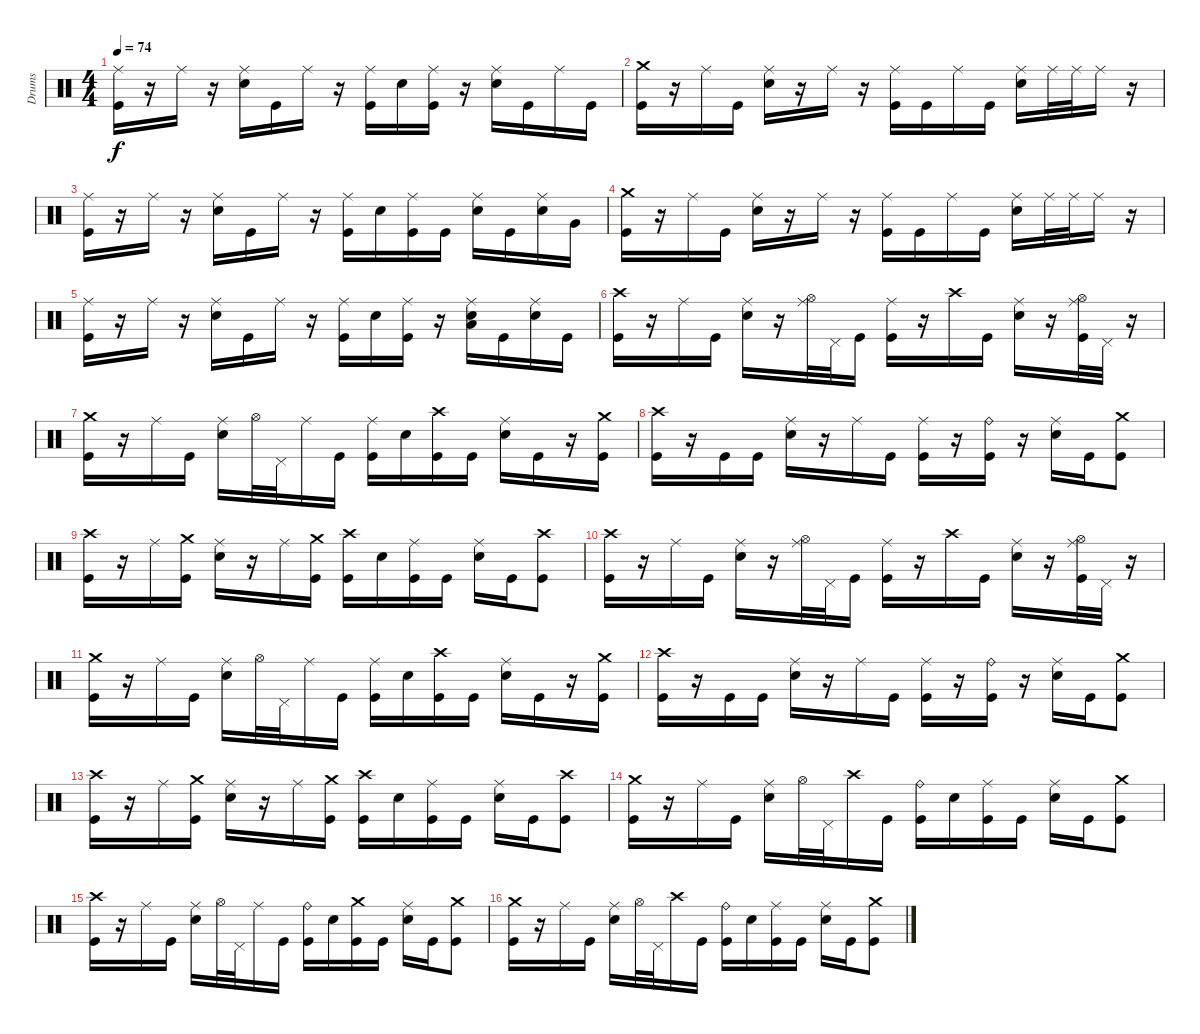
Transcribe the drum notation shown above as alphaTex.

\track ("Drums" "Drums") {instrument percussion}
\staff {score}
\articulation defaults
\ts (4 4)
\tempo 74
\clef neutral
\ks c
("Ride (middle)" "Kick (hit)").16{dy f} r.16 "Ride (middle)".16 r.16 ("Ride (middle)" "Electric Snare (hit)").16 "Kick (hit)".16 "Ride (middle)".16 r.16 ("Ride (middle)" "Kick (hit)").16 "Electric Snare (hit)".16 ("Ride (middle)" "Kick (hit)").16 r.16 ("Ride (middle)" "Electric Snare (hit)").16 "Kick (hit)".16 "Ride (middle)".16 "Kick (hit)".16 |
("Crash medium (hit)" "Kick (hit)").16 r.16 "Ride (middle)".16 "Kick (hit)".16 ("Ride (middle)" "Electric Snare (hit)").16 r.16 "Ride (middle)".16 r.16 ("Ride (middle)" "Kick (hit)").16 "Kick (hit)".16 "Ride (middle)".16 "Kick (hit)".16 ("Ride (middle)" "Electric Snare (hit)").16 "Ride (middle)".32 "Ride (middle)".32 "Ride (middle)".16 r.16 |
("Ride (middle)" "Kick (hit)").16 r.16 "Ride (middle)".16 r.16 ("Ride (middle)" "Electric Snare (hit)").16 "Kick (hit)".16 "Ride (middle)".16 r.16 ("Ride (middle)" "Kick (hit)").16 "Electric Snare (hit)".16 ("Ride (middle)" "Kick (hit)").16 "Kick (hit)".16 ("Ride (middle)" "Electric Snare (hit)").16 "Kick (hit)".16 ("Ride (middle)" "Electric Snare (hit)").16 "Very Low Tom (hit)".16 |
("Crash medium (hit)" "Kick (hit)").16 r.16 "Ride (middle)".16 "Kick (hit)".16 ("Ride (middle)" "Electric Snare (hit)").16 r.16 "Ride (middle)".16 r.16 ("Ride (middle)" "Kick (hit)").16 "Kick (hit)".16 "Ride (middle)".16 "Kick (hit)".16 ("Ride (middle)" "Electric Snare (hit)").16 "Ride (middle)".32 "Ride (middle)".32 "Ride (middle)".16 r.16 |
("Ride (middle)" "Kick (hit)").16 r.16 "Ride (middle)".16 r.16 ("Ride (middle)" "Electric Snare (hit)").16 "Kick (hit)".16 "Ride (middle)".16 r.16 ("Ride (middle)" "Kick (hit)").16 "Electric Snare (hit)".16 ("Ride (middle)" "Kick (hit)").16 r.16 ("Ride (middle)" "Electric Snare (hit)" "Low Floor Tom (hit)").16 "Kick (hit)".16 ("Ride (middle)" "Electric Snare (hit)").16 "Kick (hit)".16 |
("Crash high (hit)" "Kick (hit)").16 r.16 "Ride (middle)".16 "Kick (hit)".16 ("Ride (middle)" "Electric Snare (hit)").16 r.16 ("Ride (middle)" "Hi-Hat (open)").32 "Pedal Hi-Hat (hit)".32 "Kick (hit)".16 ("Ride (middle)" "Kick (hit)").16 r.16 "Crash high (hit)".16 "Kick (hit)".16 ("Ride (middle)" "Electric Snare (hit)").16 r.16 ("Ride (middle)" "Kick (hit)" "Hi-Hat (open)").32 "Pedal Hi-Hat (hit)".32 r.16 |
("Crash medium (hit)" "Kick (hit)").16 r.16 "Ride (middle)".16 "Kick (hit)".16 ("Ride (middle)" "Electric Snare (hit)").16 "Hi-Hat (open)".32 "Pedal Hi-Hat (hit)".32 "Ride (middle)".16 "Kick (hit)".16 ("Ride (middle)" "Kick (hit)").16 "Electric Snare (hit)".16 ("Crash high (hit)" "Kick (hit)").16 "Kick (hit)".16 ("Ride (middle)" "Electric Snare (hit)").16 "Kick (hit)".16 r.16 ("Crash medium (hit)" "Kick (hit)").16 |
("Crash high (hit)" "Kick (hit)").16 r.16 "Kick (hit)".16 "Kick (hit)".16 ("Ride (middle)" "Electric Snare (hit)").16 r.16 "Ride (middle)".16 "Kick (hit)".16 ("Ride (middle)" "Kick (hit)").16 r.16 ("Ride (bell)" "Kick (hit)").16 r.16 ("Ride (middle)" "Electric Snare (hit)").16 "Kick (hit)".16 ("Crash medium (hit)" "Kick (hit)").8 |
("Crash high (hit)" "Kick (hit)").16 r.16 "Ride (middle)".16 ("Crash medium (hit)" "Kick (hit)").16 ("Ride (middle)" "Electric Snare (hit)").16 r.16 "Ride (middle)".16 ("Crash medium (hit)" "Kick (hit)").16 ("Crash high (hit)" "Kick (hit)").16 "Electric Snare (hit)".16 ("Ride (middle)" "Kick (hit)").16 "Kick (hit)".16 ("Ride (middle)" "Electric Snare (hit)").16 "Kick (hit)".16 ("Crash high (hit)" "Kick (hit)").8 |
("Crash high (hit)" "Kick (hit)").16 r.16 "Ride (middle)".16 "Kick (hit)".16 ("Ride (middle)" "Electric Snare (hit)").16 r.16 ("Ride (middle)" "Hi-Hat (open)").32 "Pedal Hi-Hat (hit)".32 "Kick (hit)".16 ("Ride (middle)" "Kick (hit)").16 r.16 "Crash high (hit)".16 "Kick (hit)".16 ("Ride (middle)" "Electric Snare (hit)").16 r.16 ("Ride (middle)" "Kick (hit)" "Hi-Hat (open)").32 "Pedal Hi-Hat (hit)".32 r.16 |
("Crash medium (hit)" "Kick (hit)").16 r.16 "Ride (middle)".16 "Kick (hit)".16 ("Ride (middle)" "Electric Snare (hit)").16 "Hi-Hat (open)".32 "Pedal Hi-Hat (hit)".32 "Ride (middle)".16 "Kick (hit)".16 ("Ride (middle)" "Kick (hit)").16 "Electric Snare (hit)".16 ("Crash high (hit)" "Kick (hit)").16 "Kick (hit)".16 ("Ride (middle)" "Electric Snare (hit)").16 "Kick (hit)".16 r.16 ("Crash medium (hit)" "Kick (hit)").16 |
("Crash high (hit)" "Kick (hit)").16 r.16 "Kick (hit)".16 "Kick (hit)".16 ("Ride (middle)" "Electric Snare (hit)").16 r.16 "Ride (middle)".16 "Kick (hit)".16 ("Ride (middle)" "Kick (hit)").16 r.16 ("Ride (bell)" "Kick (hit)").16 r.16 ("Ride (middle)" "Electric Snare (hit)").16 "Kick (hit)".16 ("Crash medium (hit)" "Kick (hit)").8 |
("Crash high (hit)" "Kick (hit)").16 r.16 "Ride (middle)".16 ("Crash medium (hit)" "Kick (hit)").16 ("Ride (middle)" "Electric Snare (hit)").16 r.16 "Ride (middle)".16 ("Crash medium (hit)" "Kick (hit)").16 ("Crash high (hit)" "Kick (hit)").16 "Electric Snare (hit)".16 ("Ride (middle)" "Kick (hit)").16 "Kick (hit)".16 ("Ride (middle)" "Electric Snare (hit)").16 "Kick (hit)".16 ("Crash high (hit)" "Kick (hit)").8 |
("Crash medium (hit)" "Kick (hit)").16 r.16 "Ride (middle)".16 "Kick (hit)".16 ("Ride (middle)" "Electric Snare (hit)").16 "Hi-Hat (open)".32 "Pedal Hi-Hat (hit)".32 "Crash high (hit)".16 "Kick (hit)".16 ("Ride (bell)" "Kick (hit)").16 "Electric Snare (hit)".16 ("Ride (middle)" "Kick (hit)").16 "Kick (hit)".16 ("Ride (middle)" "Electric Snare (hit)").16 "Kick (hit)".16 ("Crash medium (hit)" "Kick (hit)").8 |
("Crash high (hit)" "Kick (hit)").16 r.16 "Ride (middle)".16 "Kick (hit)".16 ("Ride (middle)" "Electric Snare (hit)").16 "Hi-Hat (open)".32 "Pedal Hi-Hat (hit)".32 "Ride (middle)".16 "Kick (hit)".16 ("Ride (bell)" "Kick (hit)").16 "Electric Snare (hit)".16 ("Crash medium (hit)" "Kick (hit)").16 "Kick (hit)".16 ("Ride (middle)" "Electric Snare (hit)").16 "Kick (hit)".16 ("Crash medium (hit)" "Kick (hit)").8 |
("Crash medium (hit)" "Kick (hit)").16 r.16 "Ride (middle)".16 "Kick (hit)".16 ("Ride (middle)" "Electric Snare (hit)").16 "Hi-Hat (open)".32 "Pedal Hi-Hat (hit)".32 "Crash high (hit)".16 "Kick (hit)".16 ("Ride (bell)" "Kick (hit)").16 "Electric Snare (hit)".16 ("Ride (middle)" "Kick (hit)").16 "Kick (hit)".16 ("Ride (middle)" "Electric Snare (hit)").16 "Kick (hit)".16 ("Crash medium (hit)" "Kick (hit)").8
